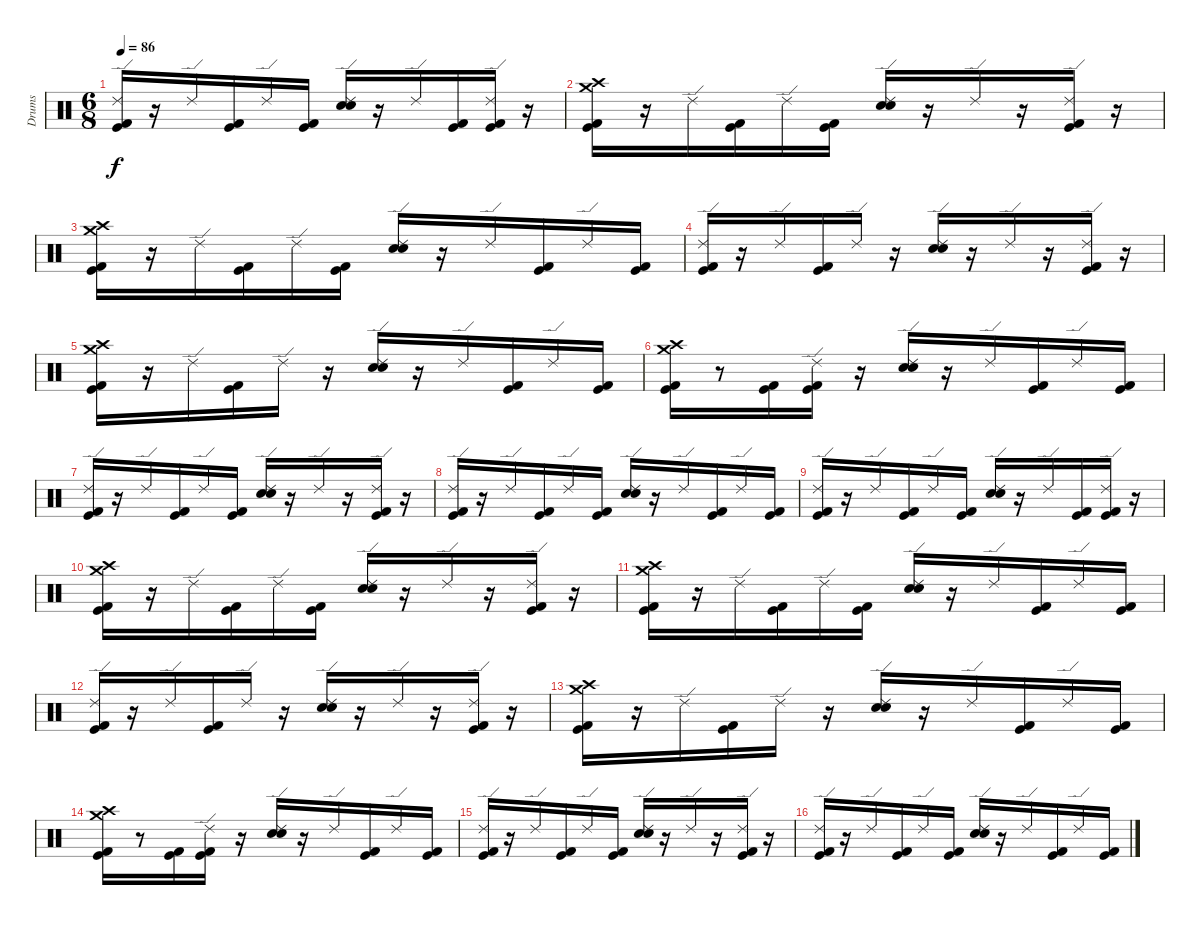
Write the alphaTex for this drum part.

\track ("Drums" "Drums") {instrument percussion}
\staff {score}
\articulation defaults
\ts (6 8)
\tempo 86
\clef neutral
\ks c
("Ride (edge) 2" "Kick (hit) 2" "Kick (hit)").16{dy f} r.16 "Ride (edge) 2".16 ("Kick (hit) 2" "Kick (hit)").16 "Ride (edge) 2".16 ("Kick (hit) 2" "Kick (hit)").16 ("Ride (edge) 2" "Snare (hit) 2" "Electric Snare (hit)").16 r.16 "Ride (edge) 2".16 ("Kick (hit) 2" "Kick (hit)").16 ("Kick (hit) 2" "Kick (hit)" "Ride (edge) 2").16 r.16 |
("Crash high (hit)" "Crash medium (hit)" "Kick (hit) 2" "Kick (hit)").16 r.16 "Ride (edge) 2".16 ("Kick (hit) 2" "Kick (hit)").16 "Ride (edge) 2".16 ("Kick (hit) 2" "Kick (hit)").16 ("Ride (edge) 2" "Electric Snare (hit)" "Snare (hit) 2").16 r.16 "Ride (edge) 2".16 r.16 ("Ride (edge) 2" "Kick (hit) 2" "Kick (hit)").16 r.16 |
("Crash high (hit)" "Crash medium (hit)" "Kick (hit) 2" "Kick (hit)").16 r.16 "Ride (edge) 2".16 ("Kick (hit) 2" "Kick (hit)").16 "Ride (edge) 2".16 ("Kick (hit) 2" "Kick (hit)").16 ("Ride (edge) 2" "Electric Snare (hit)" "Snare (hit) 2").16 r.16 "Ride (edge) 2".16 ("Kick (hit)" "Kick (hit) 2").16 "Ride (edge) 2".16 ("Kick (hit) 2" "Kick (hit)").16 |
("Ride (edge) 2" "Kick (hit) 2" "Kick (hit)").16 r.16 "Ride (edge) 2".16 ("Kick (hit) 2" "Kick (hit)").16 "Ride (edge) 2".16 r.16 ("Electric Snare (hit)" "Snare (hit) 2" "Ride (edge) 2").16 r.16 "Ride (edge) 2".16 r.16 ("Kick (hit) 2" "Kick (hit)" "Ride (edge) 2").16 r.16 |
("Crash high (hit)" "Crash medium (hit)" "Kick (hit) 2" "Kick (hit)").16 r.16 "Ride (edge) 2".16 ("Kick (hit) 2" "Kick (hit)").16 "Ride (edge) 2".16 r.16 ("Electric Snare (hit)" "Snare (hit) 2" "Ride (edge) 2").16 r.16 "Ride (edge) 2".16 ("Kick (hit)" "Kick (hit) 2").16 "Ride (edge) 2".16 ("Kick (hit) 2" "Kick (hit)").16 |
("Crash high (hit)" "Kick (hit) 2" "Crash medium (hit)" "Kick (hit)").16 r.8 ("Kick (hit) 2" "Kick (hit)").16 ("Ride (edge) 2" "Kick (hit) 2" "Kick (hit)").16 r.16 ("Electric Snare (hit)" "Snare (hit) 2" "Ride (edge) 2").16 r.16 "Ride (edge) 2".16 ("Kick (hit) 2" "Kick (hit)").16 "Ride (edge) 2".16 ("Kick (hit) 2" "Kick (hit)").16 |
("Ride (edge) 2" "Kick (hit) 2" "Kick (hit)").16 r.16 "Ride (edge) 2".16 ("Kick (hit) 2" "Kick (hit)").16 "Ride (edge) 2".16 ("Kick (hit) 2" "Kick (hit)").16 ("Electric Snare (hit)" "Snare (hit) 2" "Ride (edge) 2").16 r.16 "Ride (edge) 2".16 r.16 ("Kick (hit) 2" "Kick (hit)" "Ride (edge) 2").16 r.16 |
("Ride (edge) 2" "Kick (hit) 2" "Kick (hit)").16 r.16 "Ride (edge) 2".16 ("Kick (hit) 2" "Kick (hit)").16 "Ride (edge) 2".16 ("Kick (hit) 2" "Kick (hit)").16 ("Electric Snare (hit)" "Snare (hit) 2" "Ride (edge) 2").16 r.16 "Ride (edge) 2".16 ("Kick (hit) 2" "Kick (hit)").16 "Ride (edge) 2".16 ("Kick (hit) 2" "Kick (hit)").16 |
("Ride (edge) 2" "Kick (hit) 2" "Kick (hit)").16 r.16 "Ride (edge) 2".16 ("Kick (hit) 2" "Kick (hit)").16 "Ride (edge) 2".16 ("Kick (hit) 2" "Kick (hit)").16 ("Ride (edge) 2" "Snare (hit) 2" "Electric Snare (hit)").16 r.16 "Ride (edge) 2".16 ("Kick (hit) 2" "Kick (hit)").16 ("Kick (hit) 2" "Kick (hit)" "Ride (edge) 2").16 r.16 |
("Crash high (hit)" "Crash medium (hit)" "Kick (hit) 2" "Kick (hit)").16 r.16 "Ride (edge) 2".16 ("Kick (hit) 2" "Kick (hit)").16 "Ride (edge) 2".16 ("Kick (hit) 2" "Kick (hit)").16 ("Ride (edge) 2" "Electric Snare (hit)" "Snare (hit) 2").16 r.16 "Ride (edge) 2".16 r.16 ("Ride (edge) 2" "Kick (hit) 2" "Kick (hit)").16 r.16 |
("Crash high (hit)" "Crash medium (hit)" "Kick (hit) 2" "Kick (hit)").16 r.16 "Ride (edge) 2".16 ("Kick (hit) 2" "Kick (hit)").16 "Ride (edge) 2".16 ("Kick (hit) 2" "Kick (hit)").16 ("Ride (edge) 2" "Electric Snare (hit)" "Snare (hit) 2").16 r.16 "Ride (edge) 2".16 ("Kick (hit)" "Kick (hit) 2").16 "Ride (edge) 2".16 ("Kick (hit) 2" "Kick (hit)").16 |
("Ride (edge) 2" "Kick (hit) 2" "Kick (hit)").16 r.16 "Ride (edge) 2".16 ("Kick (hit) 2" "Kick (hit)").16 "Ride (edge) 2".16 r.16 ("Electric Snare (hit)" "Snare (hit) 2" "Ride (edge) 2").16 r.16 "Ride (edge) 2".16 r.16 ("Kick (hit) 2" "Kick (hit)" "Ride (edge) 2").16 r.16 |
("Crash high (hit)" "Crash medium (hit)" "Kick (hit) 2" "Kick (hit)").16 r.16 "Ride (edge) 2".16 ("Kick (hit) 2" "Kick (hit)").16 "Ride (edge) 2".16 r.16 ("Electric Snare (hit)" "Snare (hit) 2" "Ride (edge) 2").16 r.16 "Ride (edge) 2".16 ("Kick (hit)" "Kick (hit) 2").16 "Ride (edge) 2".16 ("Kick (hit) 2" "Kick (hit)").16 |
("Crash high (hit)" "Kick (hit) 2" "Crash medium (hit)" "Kick (hit)").16 r.8 ("Kick (hit) 2" "Kick (hit)").16 ("Ride (edge) 2" "Kick (hit) 2" "Kick (hit)").16 r.16 ("Electric Snare (hit)" "Snare (hit) 2" "Ride (edge) 2").16 r.16 "Ride (edge) 2".16 ("Kick (hit) 2" "Kick (hit)").16 "Ride (edge) 2".16 ("Kick (hit) 2" "Kick (hit)").16 |
("Ride (edge) 2" "Kick (hit) 2" "Kick (hit)").16 r.16 "Ride (edge) 2".16 ("Kick (hit) 2" "Kick (hit)").16 "Ride (edge) 2".16 ("Kick (hit) 2" "Kick (hit)").16 ("Electric Snare (hit)" "Snare (hit) 2" "Ride (edge) 2").16 r.16 "Ride (edge) 2".16 r.16 ("Kick (hit) 2" "Kick (hit)" "Ride (edge) 2").16 r.16 |
("Ride (edge) 2" "Kick (hit) 2" "Kick (hit)").16 r.16 "Ride (edge) 2".16 ("Kick (hit) 2" "Kick (hit)").16 "Ride (edge) 2".16 ("Kick (hit) 2" "Kick (hit)").16 ("Electric Snare (hit)" "Snare (hit) 2" "Ride (edge) 2").16 r.16 "Ride (edge) 2".16 ("Kick (hit) 2" "Kick (hit)").16 "Ride (edge) 2".16 ("Kick (hit) 2" "Kick (hit)").16
